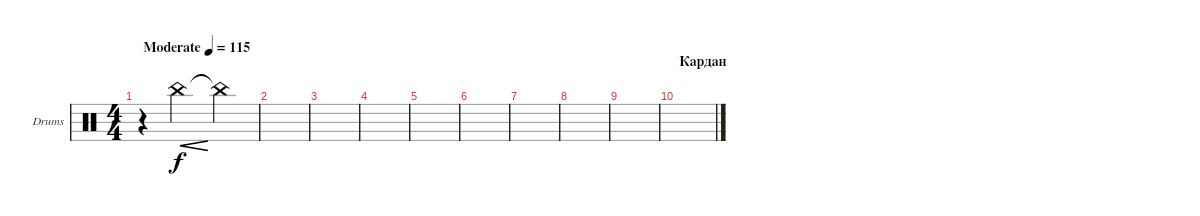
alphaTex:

\bracketExtendMode groupsimilarinstruments
\firstSystemTrackNameOrientation horizontal
\otherSystemsTrackNameOrientation horizontal
\track ("Drumkit" "Drums") {instrument percussion}
\staff {score}
\articulation defaults
\ts (4 4)
\beaming (8 2 2 2 2)
\tempo (115 "Moderate")
\clef neutral
\scale
0.262911
\ks c
r.4{dy f} "China (hit)".2{cre} "China (hit)"{t}.4 |
\scale
0.262911 |
\scale
0.333333 |
\scale
0.333333 |
\scale
0.333333 |
\scale
0.333333 |
\scale
0.333333 |
\scale
0.333333 |
\scale
0.333333 |
\section ("" "Кардан")
\scale
0.333333 |
\scale
0.333333 |
\scale
0.333333 |
\scale
0.333333 |
\scale
0.333333 |
\scale
0.333333 |
\scale
0.333333
